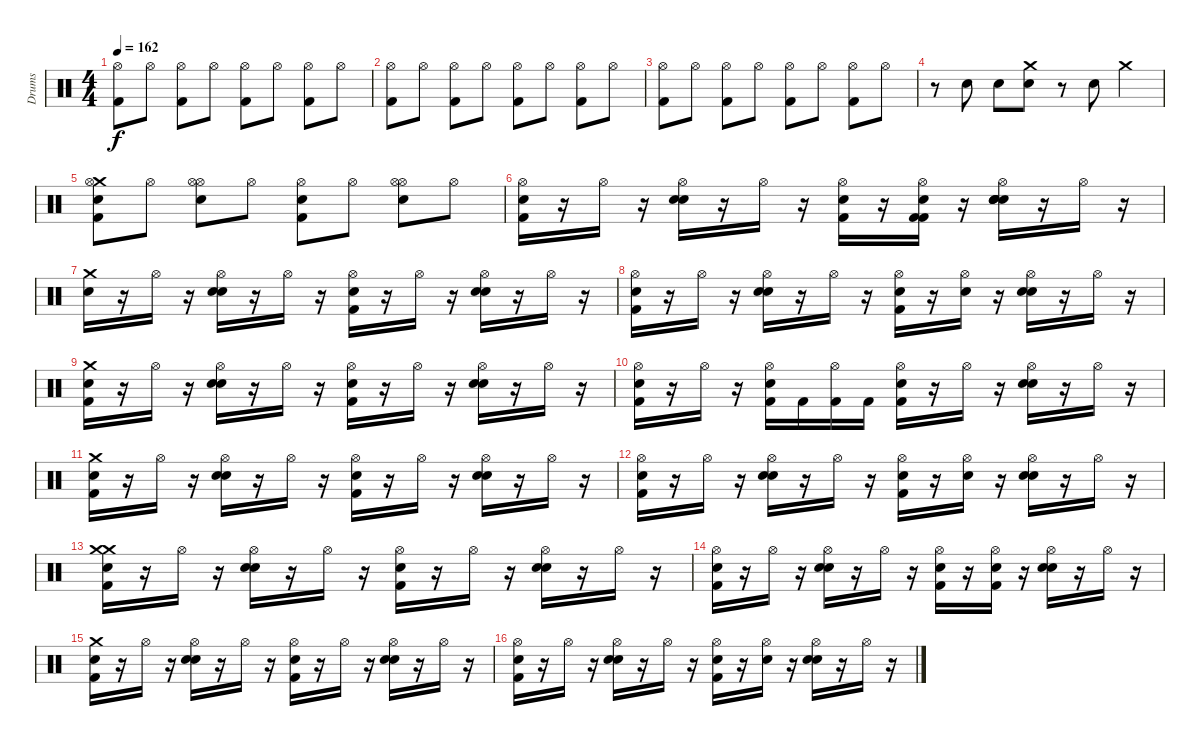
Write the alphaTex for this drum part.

\track ("Drums" "Drums") {instrument percussion}
\staff {score}
\articulation defaults
\ts (4 4)
\tempo 162
\clef neutral
\ks c
("Hi-Hat (open)" "Kick (hit) 2").8{dy f} "Hi-Hat (open)".8 ("Hi-Hat (open)" "Kick (hit) 2").8 "Hi-Hat (open)".8 ("Hi-Hat (open)" "Kick (hit) 2").8 "Hi-Hat (open)".8 ("Hi-Hat (open)" "Kick (hit) 2").8 "Hi-Hat (open)".8 |
("Hi-Hat (open)" "Kick (hit) 2").8 "Hi-Hat (open)".8 ("Hi-Hat (open)" "Kick (hit) 2").8 "Hi-Hat (open)".8 ("Hi-Hat (open)" "Kick (hit) 2").8 "Hi-Hat (open)".8 ("Hi-Hat (open)" "Kick (hit) 2").8 "Hi-Hat (open)".8 |
("Hi-Hat (open)" "Kick (hit) 2").8 "Hi-Hat (open)".8 ("Hi-Hat (open)" "Kick (hit) 2").8 "Hi-Hat (open)".8 ("Hi-Hat (open)" "Kick (hit) 2").8 "Hi-Hat (open)".8 ("Hi-Hat (open)" "Kick (hit) 2").8 "Hi-Hat (open)".8 |
r.8 "Electric Snare (hit)".8 "Electric Snare (hit)".8 ("Crash medium (hit)" "Electric Snare (hit)").8 r.8 "Electric Snare (hit)".8 "Crash medium (hit)".4 |
("Crash medium (hit)" "Electric Snare (hit)" "Hi-Hat (open)" "Kick (hit) 2").8 "Hi-Hat (open)".8 ("Hi-Hat (open)" "Hi-Hat (open)" "Snare (hit) 2").8 "Hi-Hat (open)".8 ("Electric Snare (hit)" "Hi-Hat (open)" "Kick (hit) 2").8 "Hi-Hat (open)".8 ("Hi-Hat (open)" "Hi-Hat (open)" "Snare (hit) 2").8 "Hi-Hat (open)".8 |
("Electric Snare (hit)" "Hi-Hat (open)" "Kick (hit) 2").16 r.16 "Hi-Hat (open)".16 r.16 ("Electric Snare (hit)" "Hi-Hat (open)" "Snare (hit) 2").16 r.16 "Hi-Hat (open)".16 r.16 ("Electric Snare (hit)" "Hi-Hat (open)" "Kick (hit) 2").16 r.16 ("Electric Snare (hit)" "Kick (hit) 2" "Kick (hit) 2" "Hi-Hat (open)").16 r.16 ("Electric Snare (hit)" "Electric Snare (hit)" "Electric Snare (hit)" "Hi-Hat (open)" "Snare (hit) 2").16 r.16 "Hi-Hat (open)".16 r.16 |
("Crash medium (hit)" "Electric Snare (hit)").16 r.16 "Hi-Hat (open)".16 r.16 ("Electric Snare (hit)" "Hi-Hat (open)" "Snare (hit) 2").16 r.16 "Hi-Hat (open)".16 r.16 ("Electric Snare (hit)" "Hi-Hat (open)" "Kick (hit) 2").16 r.16 "Hi-Hat (open)".16 r.16 ("Electric Snare (hit)" "Hi-Hat (open)" "Snare (hit) 2").16 r.16 "Hi-Hat (open)".16 r.16 |
("Electric Snare (hit)" "Hi-Hat (open)" "Kick (hit) 2").16 r.16 "Hi-Hat (open)".16 r.16 ("Electric Snare (hit)" "Hi-Hat (open)" "Snare (hit) 2").16 r.16 "Hi-Hat (open)".16 r.16 ("Electric Snare (hit)" "Hi-Hat (open)" "Kick (hit) 2").16 r.16 ("Hi-Hat (open)" "Electric Snare (hit)").16 r.16 ("Electric Snare (hit)" "Hi-Hat (open)" "Snare (hit) 2").16 r.16 "Hi-Hat (open)".16 r.16 |
("Crash medium (hit)" "Electric Snare (hit)" "Kick (hit) 2").16 r.16 "Hi-Hat (open)".16 r.16 ("Electric Snare (hit)" "Hi-Hat (open)" "Snare (hit) 2").16 r.16 "Hi-Hat (open)".16 r.16 ("Electric Snare (hit)" "Hi-Hat (open)" "Kick (hit) 2").16 r.16 "Hi-Hat (open)".16 r.16 ("Electric Snare (hit)" "Hi-Hat (open)" "Snare (hit) 2").16 r.16 "Hi-Hat (open)".16 r.16 |
("Electric Snare (hit)" "Hi-Hat (open)" "Kick (hit) 2").16 r.16 "Hi-Hat (open)".16 r.16 ("Electric Snare (hit)" "Hi-Hat (open)" "Kick (hit) 2").16 "Kick (hit) 2".16 ("Hi-Hat (open)" "Kick (hit) 2").16 "Kick (hit) 2".16 ("Electric Snare (hit)" "Hi-Hat (open)" "Kick (hit) 2").16 r.16 "Hi-Hat (open)".16 r.16 ("Electric Snare (hit)" "Hi-Hat (open)" "Snare (hit) 2").16 r.16 "Hi-Hat (open)".16 r.16 |
("Crash medium (hit)" "Electric Snare (hit)" "Kick (hit) 2").16 r.16 "Hi-Hat (open)".16 r.16 ("Electric Snare (hit)" "Hi-Hat (open)" "Snare (hit) 2").16 r.16 "Hi-Hat (open)".16 r.16 ("Electric Snare (hit)" "Hi-Hat (open)" "Kick (hit) 2").16 r.16 "Hi-Hat (open)".16 r.16 ("Electric Snare (hit)" "Hi-Hat (open)" "Snare (hit) 2").16 r.16 "Hi-Hat (open)".16 r.16 |
("Electric Snare (hit)" "Hi-Hat (open)" "Kick (hit) 2").16 r.16 "Hi-Hat (open)".16 r.16 ("Electric Snare (hit)" "Hi-Hat (open)" "Snare (hit) 2").16 r.16 "Hi-Hat (open)".16 r.16 ("Electric Snare (hit)" "Hi-Hat (open)" "Kick (hit) 2").16 r.16 ("Hi-Hat (open)" "Electric Snare (hit)").16 r.16 ("Electric Snare (hit)" "Hi-Hat (open)" "Snare (hit) 2").16 r.16 "Hi-Hat (open)".16 r.16 |
("Crash medium (hit)" "Crash medium (hit)" "Electric Snare (hit)" "Kick (hit) 2").16 r.16 "Hi-Hat (open)".16 r.16 ("Electric Snare (hit)" "Hi-Hat (open)" "Snare (hit) 2").16 r.16 "Hi-Hat (open)".16 r.16 ("Electric Snare (hit)" "Hi-Hat (open)" "Kick (hit) 2").16 r.16 "Hi-Hat (open)".16 r.16 ("Electric Snare (hit)" "Hi-Hat (open)" "Snare (hit) 2").16 r.16 "Hi-Hat (open)".16 r.16 |
("Electric Snare (hit)" "Hi-Hat (open)" "Kick (hit) 2").16 r.16 "Hi-Hat (open)".16 r.16 ("Electric Snare (hit)" "Hi-Hat (open)" "Snare (hit) 2").16 r.16 "Hi-Hat (open)".16 r.16 ("Electric Snare (hit)" "Hi-Hat (open)" "Kick (hit) 2").16 r.16 ("Electric Snare (hit)" "Kick (hit) 2" "Hi-Hat (open)").16 r.16 ("Electric Snare (hit)" "Hi-Hat (open)" "Snare (hit) 2").16 r.16 "Hi-Hat (open)".16 r.16 |
("Crash medium (hit)" "Electric Snare (hit)" "Kick (hit) 2").16 r.16 "Hi-Hat (open)".16 r.16 ("Electric Snare (hit)" "Hi-Hat (open)" "Snare (hit) 2").16 r.16 "Hi-Hat (open)".16 r.16 ("Electric Snare (hit)" "Hi-Hat (open)" "Kick (hit) 2").16 r.16 "Hi-Hat (open)".16 r.16 ("Electric Snare (hit)" "Hi-Hat (open)" "Snare (hit) 2").16 r.16 "Hi-Hat (open)".16 r.16 |
("Electric Snare (hit)" "Hi-Hat (open)" "Kick (hit) 2").16 r.16 "Hi-Hat (open)".16 r.16 ("Electric Snare (hit)" "Hi-Hat (open)" "Snare (hit) 2").16 r.16 "Hi-Hat (open)".16 r.16 ("Electric Snare (hit)" "Hi-Hat (open)" "Kick (hit) 2").16 r.16 ("Hi-Hat (open)" "Electric Snare (hit)").16 r.16 ("Electric Snare (hit)" "Hi-Hat (open)" "Snare (hit) 2").16 r.16 "Hi-Hat (open)".16 r.16
